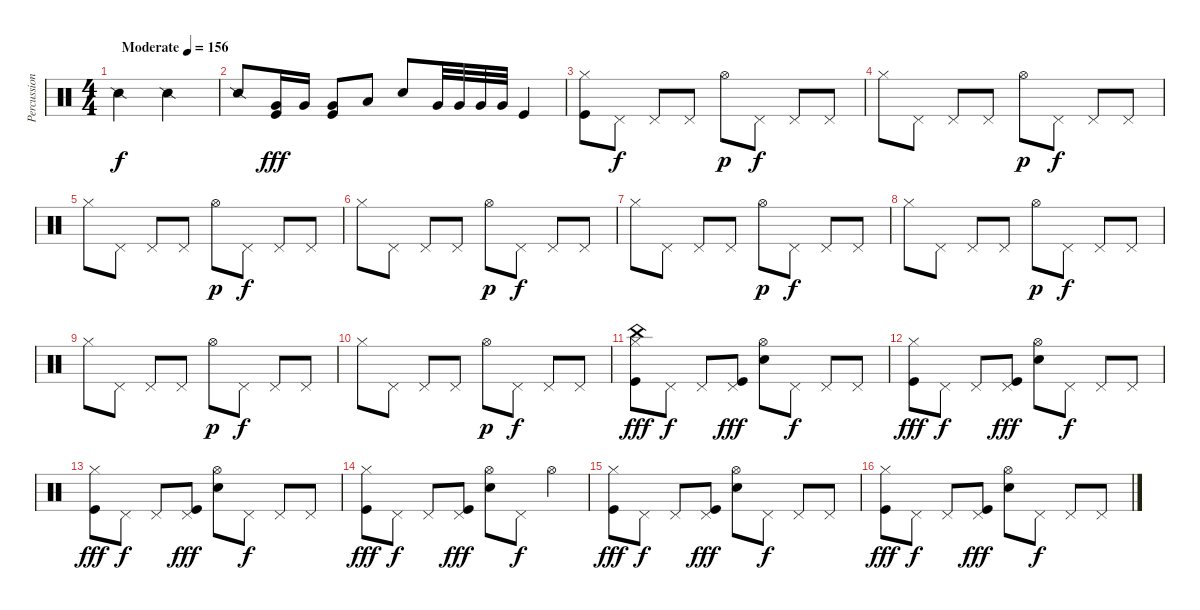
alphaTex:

\track ("Percussion" "Percussion") {instrument percussion}
\staff {score}
\articulation defaults
\ts (4 4)
\tempo (156 "Moderate")
\clef neutral
\ks c "Snare (side stick) 2".2{dy f} "Snare (side stick) 2".2
|
"Snare (side stick) 2".8 ("Very Low Tom (hit)" "Kick (hit)").16{dy fff} "Very Low Tom (hit)".16 ("Very Low Tom (hit)" "Kick (hit)").8 "Low Tom (hit)".8 "Snare (hit) 2".8 "Very Low Tom (hit)".32 "Very Low Tom (hit)".32 "Very Low Tom (hit)".32 "Very Low Tom (hit)".32 "Kick (hit)".4 |
("Hi-Hat (closed)" "Kick (hit)").8 "Pedal Hi-Hat (hit)".8{dy f} "Pedal Hi-Hat (hit)".8 "Pedal Hi-Hat (hit)".8 "Hi-Hat (open)".8{dy p} "Pedal Hi-Hat (hit)".8{dy f} "Pedal Hi-Hat (hit)".8 "Pedal Hi-Hat (hit)".8 |
"Hi-Hat (closed)".8 "Pedal Hi-Hat (hit)".8 "Pedal Hi-Hat (hit)".8 "Pedal Hi-Hat (hit)".8 "Hi-Hat (open)".8{dy p} "Pedal Hi-Hat (hit)".8{dy f} "Pedal Hi-Hat (hit)".8 "Pedal Hi-Hat (hit)".8 |
"Hi-Hat (closed)".8 "Pedal Hi-Hat (hit)".8 "Pedal Hi-Hat (hit)".8 "Pedal Hi-Hat (hit)".8 "Hi-Hat (open)".8{dy p} "Pedal Hi-Hat (hit)".8{dy f} "Pedal Hi-Hat (hit)".8 "Pedal Hi-Hat (hit)".8 |
"Hi-Hat (closed)".8 "Pedal Hi-Hat (hit)".8 "Pedal Hi-Hat (hit)".8 "Pedal Hi-Hat (hit)".8 "Hi-Hat (open)".8{dy p} "Pedal Hi-Hat (hit)".8{dy f} "Pedal Hi-Hat (hit)".8 "Pedal Hi-Hat (hit)".8 |
"Hi-Hat (closed)".8 "Pedal Hi-Hat (hit)".8 "Pedal Hi-Hat (hit)".8 "Pedal Hi-Hat (hit)".8 "Hi-Hat (open)".8{dy p} "Pedal Hi-Hat (hit)".8{dy f} "Pedal Hi-Hat (hit)".8 "Pedal Hi-Hat (hit)".8 |
"Hi-Hat (closed)".8 "Pedal Hi-Hat (hit)".8 "Pedal Hi-Hat (hit)".8 "Pedal Hi-Hat (hit)".8 "Hi-Hat (open)".8{dy p} "Pedal Hi-Hat (hit)".8{dy f} "Pedal Hi-Hat (hit)".8 "Pedal Hi-Hat (hit)".8 |
"Hi-Hat (closed)".8 "Pedal Hi-Hat (hit)".8 "Pedal Hi-Hat (hit)".8 "Pedal Hi-Hat (hit)".8 "Hi-Hat (open)".8{dy p} "Pedal Hi-Hat (hit)".8{dy f} "Pedal Hi-Hat (hit)".8 "Pedal Hi-Hat (hit)".8 |
"Hi-Hat (closed)".8 "Pedal Hi-Hat (hit)".8 "Pedal Hi-Hat (hit)".8 "Pedal Hi-Hat (hit)".8 "Hi-Hat (open)".8{dy p} "Pedal Hi-Hat (hit)".8{dy f} "Pedal Hi-Hat (hit)".8 "Pedal Hi-Hat (hit)".8 |
("China (hit)" "Hi-Hat (closed)" "Kick (hit)").8{dy fff} "Pedal Hi-Hat (hit)".8{dy f} "Pedal Hi-Hat (hit)".8 ("Pedal Hi-Hat (hit)" "Kick (hit)").8{dy fff} ("Hi-Hat (open)" "Snare (hit) 2").8 "Pedal Hi-Hat (hit)".8{dy f} "Pedal Hi-Hat (hit)".8 "Pedal Hi-Hat (hit)".8 |
("Hi-Hat (closed)" "Kick (hit)").8{dy fff} "Pedal Hi-Hat (hit)".8{dy f} "Pedal Hi-Hat (hit)".8 ("Pedal Hi-Hat (hit)" "Kick (hit)").8{dy fff} ("Hi-Hat (open)" "Snare (hit) 2").8 "Pedal Hi-Hat (hit)".8{dy f} "Pedal Hi-Hat (hit)".8 "Pedal Hi-Hat (hit)".8 |
("Hi-Hat (closed)" "Kick (hit)").8{dy fff} "Pedal Hi-Hat (hit)".8{dy f} "Pedal Hi-Hat (hit)".8 ("Pedal Hi-Hat (hit)" "Kick (hit)").8{dy fff} ("Hi-Hat (open)" "Snare (hit) 2").8 "Pedal Hi-Hat (hit)".8{dy f} "Pedal Hi-Hat (hit)".8 "Pedal Hi-Hat (hit)".8 |
("Hi-Hat (closed)" "Kick (hit)").8{dy fff} "Pedal Hi-Hat (hit)".8{dy f} "Pedal Hi-Hat (hit)".8 ("Pedal Hi-Hat (hit)" "Kick (hit)").8{dy fff} ("Hi-Hat (open)" "Snare (hit) 2").8 "Pedal Hi-Hat (hit)".8{dy f} "Hi-Hat (open)".4 |
("Hi-Hat (closed)" "Kick (hit)").8{dy fff} "Pedal Hi-Hat (hit)".8{dy f} "Pedal Hi-Hat (hit)".8 ("Pedal Hi-Hat (hit)" "Kick (hit)").8{dy fff} ("Hi-Hat (open)" "Snare (hit) 2").8 "Pedal Hi-Hat (hit)".8{dy f} "Pedal Hi-Hat (hit)".8 "Pedal Hi-Hat (hit)".8 |
("Hi-Hat (closed)" "Kick (hit)").8{dy fff} "Pedal Hi-Hat (hit)".8{dy f} "Pedal Hi-Hat (hit)".8 ("Pedal Hi-Hat (hit)" "Kick (hit)").8{dy fff} ("Hi-Hat (open)" "Snare (hit) 2").8 "Pedal Hi-Hat (hit)".8{dy f} "Pedal Hi-Hat (hit)".8 "Pedal Hi-Hat (hit)".8
